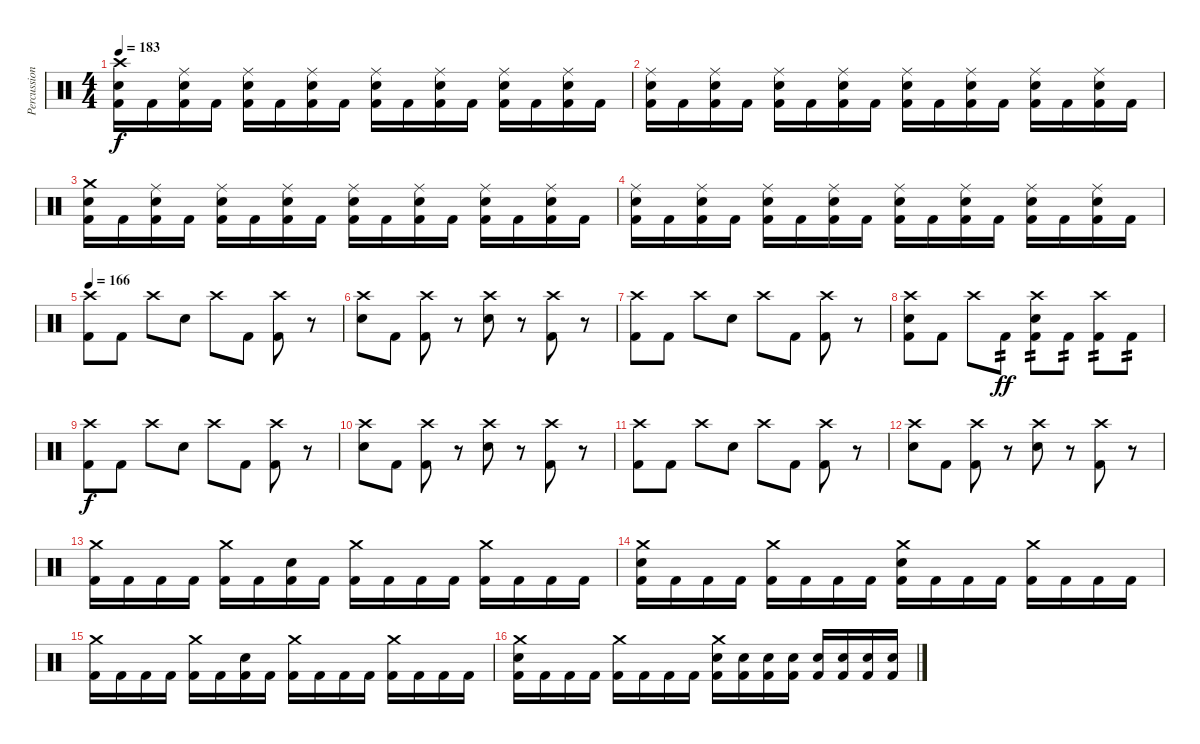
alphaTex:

\track ("Percussion" "Percussion") {instrument percussion}
\staff {score}
\articulation defaults
\ts (4 4)
\tempo 183
\clef neutral
\ks c
("Crash high (hit)" "Snare (hit) 2" "Kick (hit) 2").16{dy f} "Kick (hit) 2".16 ("Ride (middle)" "Snare (hit) 2" "Kick (hit) 2").16 "Kick (hit) 2".16 ("Ride (middle)" "Snare (hit) 2" "Kick (hit) 2").16 "Kick (hit) 2".16 ("Ride (middle)" "Snare (hit) 2" "Kick (hit) 2").16 "Kick (hit) 2".16 ("Ride (middle)" "Snare (hit) 2" "Kick (hit) 2").16 "Kick (hit) 2".16 ("Ride (middle)" "Snare (hit) 2" "Kick (hit) 2").16 "Kick (hit) 2".16 ("Ride (middle)" "Snare (hit) 2" "Kick (hit) 2").16 "Kick (hit) 2".16 ("Ride (middle)" "Snare (hit) 2" "Kick (hit) 2").16 "Kick (hit) 2".16 |
("Ride (middle)" "Snare (hit) 2" "Kick (hit) 2").16 "Kick (hit) 2".16 ("Ride (middle)" "Snare (hit) 2" "Kick (hit) 2").16 "Kick (hit) 2".16 ("Ride (middle)" "Snare (hit) 2" "Kick (hit) 2").16 "Kick (hit) 2".16 ("Ride (middle)" "Snare (hit) 2" "Kick (hit) 2").16 "Kick (hit) 2".16 ("Ride (middle)" "Snare (hit) 2" "Kick (hit) 2").16 "Kick (hit) 2".16 ("Ride (middle)" "Snare (hit) 2" "Kick (hit) 2").16 "Kick (hit) 2".16 ("Ride (middle)" "Snare (hit) 2" "Kick (hit) 2").16 "Kick (hit) 2".16 ("Ride (middle)" "Snare (hit) 2" "Kick (hit) 2").16 "Kick (hit) 2".16 |
("Crash medium (hit)" "Snare (hit) 2" "Kick (hit) 2").16 "Kick (hit) 2".16 ("Ride (middle)" "Snare (hit) 2" "Kick (hit) 2").16 "Kick (hit) 2".16 ("Ride (middle)" "Snare (hit) 2" "Kick (hit) 2").16 "Kick (hit) 2".16 ("Ride (middle)" "Snare (hit) 2" "Kick (hit) 2").16 "Kick (hit) 2".16 ("Ride (middle)" "Snare (hit) 2" "Kick (hit) 2").16 "Kick (hit) 2".16 ("Ride (middle)" "Snare (hit) 2" "Kick (hit) 2").16 "Kick (hit) 2".16 ("Ride (middle)" "Snare (hit) 2" "Kick (hit) 2").16 "Kick (hit) 2".16 ("Ride (middle)" "Snare (hit) 2" "Kick (hit) 2").16 "Kick (hit) 2".16 |
("Ride (middle)" "Snare (hit) 2" "Kick (hit) 2").16 "Kick (hit) 2".16 ("Ride (middle)" "Snare (hit) 2" "Kick (hit) 2").16 "Kick (hit) 2".16 ("Ride (middle)" "Snare (hit) 2" "Kick (hit) 2").16 "Kick (hit) 2".16 ("Ride (middle)" "Snare (hit) 2" "Kick (hit) 2").16 "Kick (hit) 2".16 ("Ride (middle)" "Snare (hit) 2" "Kick (hit) 2").16 "Kick (hit) 2".16 ("Ride (middle)" "Snare (hit) 2" "Kick (hit) 2").16 "Kick (hit) 2".16 ("Ride (middle)" "Snare (hit) 2" "Kick (hit) 2").16 "Kick (hit) 2".16 ("Ride (middle)" "Snare (hit) 2" "Kick (hit) 2").16 "Kick (hit) 2".16 |
\tempo 166
("Crash high (hit)" "Kick (hit) 2").8 "Kick (hit) 2".8 "Crash high (hit)".8 "Snare (hit) 2".8 "Crash high (hit)".8 "Kick (hit) 2".8 ("Crash high (hit)" "Kick (hit) 2").8 r.8 |
("Crash high (hit)" "Snare (hit) 2").8 "Kick (hit) 2".8 ("Crash high (hit)" "Kick (hit) 2").8 r.8 ("Crash high (hit)" "Snare (hit) 2").8 r.8 ("Crash high (hit)" "Kick (hit) 2").8 r.8 |
("Crash high (hit)" "Kick (hit) 2").8 "Kick (hit) 2".8 "Crash high (hit)".8 "Snare (hit) 2".8 "Crash high (hit)".8 "Kick (hit) 2".8 ("Crash high (hit)" "Kick (hit) 2").8 r.8 |
("Crash high (hit)" "Snare (hit) 2" "Kick (hit) 2").8 "Kick (hit) 2".8 "Crash high (hit)".8 "Kick (hit) 2".8{tp 2 dy ff} ("Crash high (hit)" "Snare (hit) 2" "Kick (hit) 2").8{tp 2} "Kick (hit) 2".8{tp 2} ("Crash high (hit)" "Kick (hit) 2").8{tp 2} "Kick (hit) 2".8{tp 2} |
("Crash high (hit)" "Kick (hit) 2").8{dy f} "Kick (hit) 2".8 "Crash high (hit)".8 "Snare (hit) 2".8 "Crash high (hit)".8 "Kick (hit) 2".8 ("Crash high (hit)" "Kick (hit) 2").8 r.8 |
("Crash high (hit)" "Snare (hit) 2").8 "Kick (hit) 2".8 ("Crash high (hit)" "Kick (hit) 2").8 r.8 ("Crash high (hit)" "Snare (hit) 2").8 r.8 ("Crash high (hit)" "Kick (hit) 2").8 r.8 |
("Crash high (hit)" "Kick (hit) 2").8 "Kick (hit) 2".8 "Crash high (hit)".8 "Snare (hit) 2".8 "Crash high (hit)".8 "Kick (hit) 2".8 ("Crash high (hit)" "Kick (hit) 2").8 r.8 |
("Crash high (hit)" "Snare (hit) 2").8 "Kick (hit) 2".8 ("Crash high (hit)" "Kick (hit) 2").8 r.8 ("Crash high (hit)" "Snare (hit) 2").8 r.8 ("Crash high (hit)" "Kick (hit) 2").8 r.8 |
("Crash medium (hit)" "Kick (hit) 2").16 "Kick (hit) 2".16 "Kick (hit) 2".16 "Kick (hit) 2".16 ("Crash medium (hit)" "Kick (hit) 2").16 "Kick (hit) 2".16 ("Snare (hit) 2" "Kick (hit) 2").16 "Kick (hit) 2".16 ("Crash medium (hit)" "Kick (hit) 2").16 "Kick (hit) 2".16 "Kick (hit) 2".16 "Kick (hit) 2".16 ("Crash medium (hit)" "Kick (hit) 2").16 "Kick (hit) 2".16 "Kick (hit) 2".16 "Kick (hit) 2".16 |
("Crash medium (hit)" "Snare (hit) 2" "Kick (hit) 2").16 "Kick (hit) 2".16 "Kick (hit) 2".16 "Kick (hit) 2".16 ("Crash medium (hit)" "Kick (hit) 2").16 "Kick (hit) 2".16 "Kick (hit) 2".16 "Kick (hit) 2".16 ("Crash medium (hit)" "Snare (hit) 2" "Kick (hit) 2").16 "Kick (hit) 2".16 "Kick (hit) 2".16 "Kick (hit) 2".16 ("Crash medium (hit)" "Kick (hit) 2").16 "Kick (hit) 2".16 "Kick (hit) 2".16 "Kick (hit) 2".16 |
("Crash medium (hit)" "Kick (hit) 2").16 "Kick (hit) 2".16 "Kick (hit) 2".16 "Kick (hit) 2".16 ("Crash medium (hit)" "Kick (hit) 2").16 "Kick (hit) 2".16 ("Snare (hit) 2" "Kick (hit) 2").16 "Kick (hit) 2".16 ("Crash medium (hit)" "Kick (hit) 2").16 "Kick (hit) 2".16 "Kick (hit) 2".16 "Kick (hit) 2".16 ("Crash medium (hit)" "Kick (hit) 2").16 "Kick (hit) 2".16 "Kick (hit) 2".16 "Kick (hit) 2".16 |
("Crash medium (hit)" "Snare (hit) 2" "Kick (hit) 2").16 "Kick (hit) 2".16 "Kick (hit) 2".16 "Kick (hit) 2".16 ("Crash medium (hit)" "Kick (hit) 2").16 "Kick (hit) 2".16 "Kick (hit) 2".16 "Kick (hit) 2".16 ("Crash medium (hit)" "Snare (hit) 2" "Kick (hit) 2").16 ("Snare (hit) 2" "Kick (hit) 2").16 ("Snare (hit) 2" "Kick (hit) 2").16 ("Snare (hit) 2" "Kick (hit) 2").16 ("Snare (hit) 2" "Kick (hit) 2").16 ("Snare (hit) 2" "Kick (hit) 2").16 ("Snare (hit) 2" "Kick (hit) 2").16 ("Snare (hit) 2" "Kick (hit) 2").16
